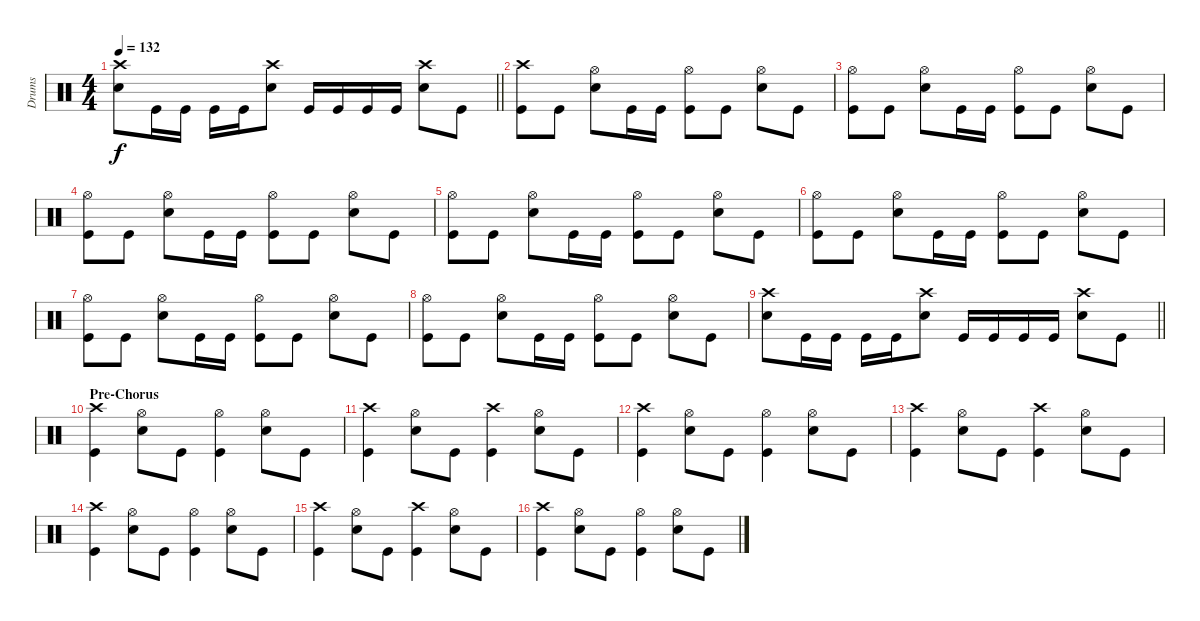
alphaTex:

\track ("Drums" "Drums") {instrument percussion}
\staff {score}
\articulation defaults
\ts (4 4)
\tempo 132
\clef neutral
\barLineRight lightlight
\ks c
("Crash high (hit)" "Electric Snare (hit)").8{dy f} "Kick (hit)".16 "Kick (hit)".16 "Kick (hit)".16 "Kick (hit)".16 ("Crash high (hit)" "Electric Snare (hit)").8 "Kick (hit)".16 "Kick (hit)".16 "Kick (hit)".16 "Kick (hit)".16 ("Crash high (hit)" "Electric Snare (hit)").8 "Kick (hit)".8 |
\section ("" "")
("Crash high (hit)" "Kick (hit)").8 "Kick (hit)".8 ("Hi-Hat (open)" "Electric Snare (hit)").8 "Kick (hit)".16 "Kick (hit)".16 ("Hi-Hat (open)" "Kick (hit)").8 "Kick (hit)".8 ("Hi-Hat (open)" "Electric Snare (hit)").8 "Kick (hit)".8 |
("Hi-Hat (open)" "Kick (hit)").8 "Kick (hit)".8 ("Hi-Hat (open)" "Electric Snare (hit)").8 "Kick (hit)".16 "Kick (hit)".16 ("Hi-Hat (open)" "Kick (hit)").8 "Kick (hit)".8 ("Hi-Hat (open)" "Electric Snare (hit)").8 "Kick (hit)".8 |
("Hi-Hat (open)" "Kick (hit)").8 "Kick (hit)".8 ("Hi-Hat (open)" "Electric Snare (hit)").8 "Kick (hit)".16 "Kick (hit)".16 ("Hi-Hat (open)" "Kick (hit)").8 "Kick (hit)".8 ("Hi-Hat (open)" "Electric Snare (hit)").8 "Kick (hit)".8 |
("Hi-Hat (open)" "Kick (hit)").8 "Kick (hit)".8 ("Hi-Hat (open)" "Electric Snare (hit)").8 "Kick (hit)".16 "Kick (hit)".16 ("Hi-Hat (open)" "Kick (hit)").8 "Kick (hit)".8 ("Hi-Hat (open)" "Electric Snare (hit)").8 "Kick (hit)".8 |
("Hi-Hat (open)" "Kick (hit)").8 "Kick (hit)".8 ("Hi-Hat (open)" "Electric Snare (hit)").8 "Kick (hit)".16 "Kick (hit)".16 ("Hi-Hat (open)" "Kick (hit)").8 "Kick (hit)".8 ("Hi-Hat (open)" "Electric Snare (hit)").8 "Kick (hit)".8 |
("Hi-Hat (open)" "Kick (hit)").8 "Kick (hit)".8 ("Hi-Hat (open)" "Electric Snare (hit)").8 "Kick (hit)".16 "Kick (hit)".16 ("Hi-Hat (open)" "Kick (hit)").8 "Kick (hit)".8 ("Hi-Hat (open)" "Electric Snare (hit)").8 "Kick (hit)".8 |
("Hi-Hat (open)" "Kick (hit)").8 "Kick (hit)".8 ("Hi-Hat (open)" "Electric Snare (hit)").8 "Kick (hit)".16 "Kick (hit)".16 ("Hi-Hat (open)" "Kick (hit)").8 "Kick (hit)".8 ("Hi-Hat (open)" "Electric Snare (hit)").8 "Kick (hit)".8 |
\barLineRight lightlight
("Crash high (hit)" "Electric Snare (hit)").8 "Kick (hit)".16 "Kick (hit)".16 "Kick (hit)".16 "Kick (hit)".16 ("Crash high (hit)" "Electric Snare (hit)").8 "Kick (hit)".16 "Kick (hit)".16 "Kick (hit)".16 "Kick (hit)".16 ("Crash high (hit)" "Electric Snare (hit)").8 "Kick (hit)".8 |
\section ("" "Pre-Chorus")
("Crash high (hit)" "Kick (hit)").4 ("Hi-Hat (open)" "Electric Snare (hit)").8 "Kick (hit)".8 ("Hi-Hat (open)" "Kick (hit)").4 ("Hi-Hat (open)" "Electric Snare (hit)").8 "Kick (hit)".8 |
("Crash high (hit)" "Kick (hit)").4 ("Hi-Hat (open)" "Electric Snare (hit)").8 "Kick (hit)".8 ("Crash high (hit)" "Kick (hit)").4 ("Hi-Hat (open)" "Electric Snare (hit)").8 "Kick (hit)".8 |
("Crash high (hit)" "Kick (hit)").4 ("Hi-Hat (open)" "Electric Snare (hit)").8 "Kick (hit)".8 ("Hi-Hat (open)" "Kick (hit)").4 ("Hi-Hat (open)" "Electric Snare (hit)").8 "Kick (hit)".8 |
("Crash high (hit)" "Kick (hit)").4 ("Hi-Hat (open)" "Electric Snare (hit)").8 "Kick (hit)".8 ("Crash high (hit)" "Kick (hit)").4 ("Hi-Hat (open)" "Electric Snare (hit)").8 "Kick (hit)".8 |
("Crash high (hit)" "Kick (hit)").4 ("Hi-Hat (open)" "Electric Snare (hit)").8 "Kick (hit)".8 ("Hi-Hat (open)" "Kick (hit)").4 ("Hi-Hat (open)" "Electric Snare (hit)").8 "Kick (hit)".8 |
("Crash high (hit)" "Kick (hit)").4 ("Hi-Hat (open)" "Electric Snare (hit)").8 "Kick (hit)".8 ("Crash high (hit)" "Kick (hit)").4 ("Hi-Hat (open)" "Electric Snare (hit)").8 "Kick (hit)".8 |
("Crash high (hit)" "Kick (hit)").4 ("Hi-Hat (open)" "Electric Snare (hit)").8 "Kick (hit)".8 ("Hi-Hat (open)" "Kick (hit)").4 ("Hi-Hat (open)" "Electric Snare (hit)").8 "Kick (hit)".8
